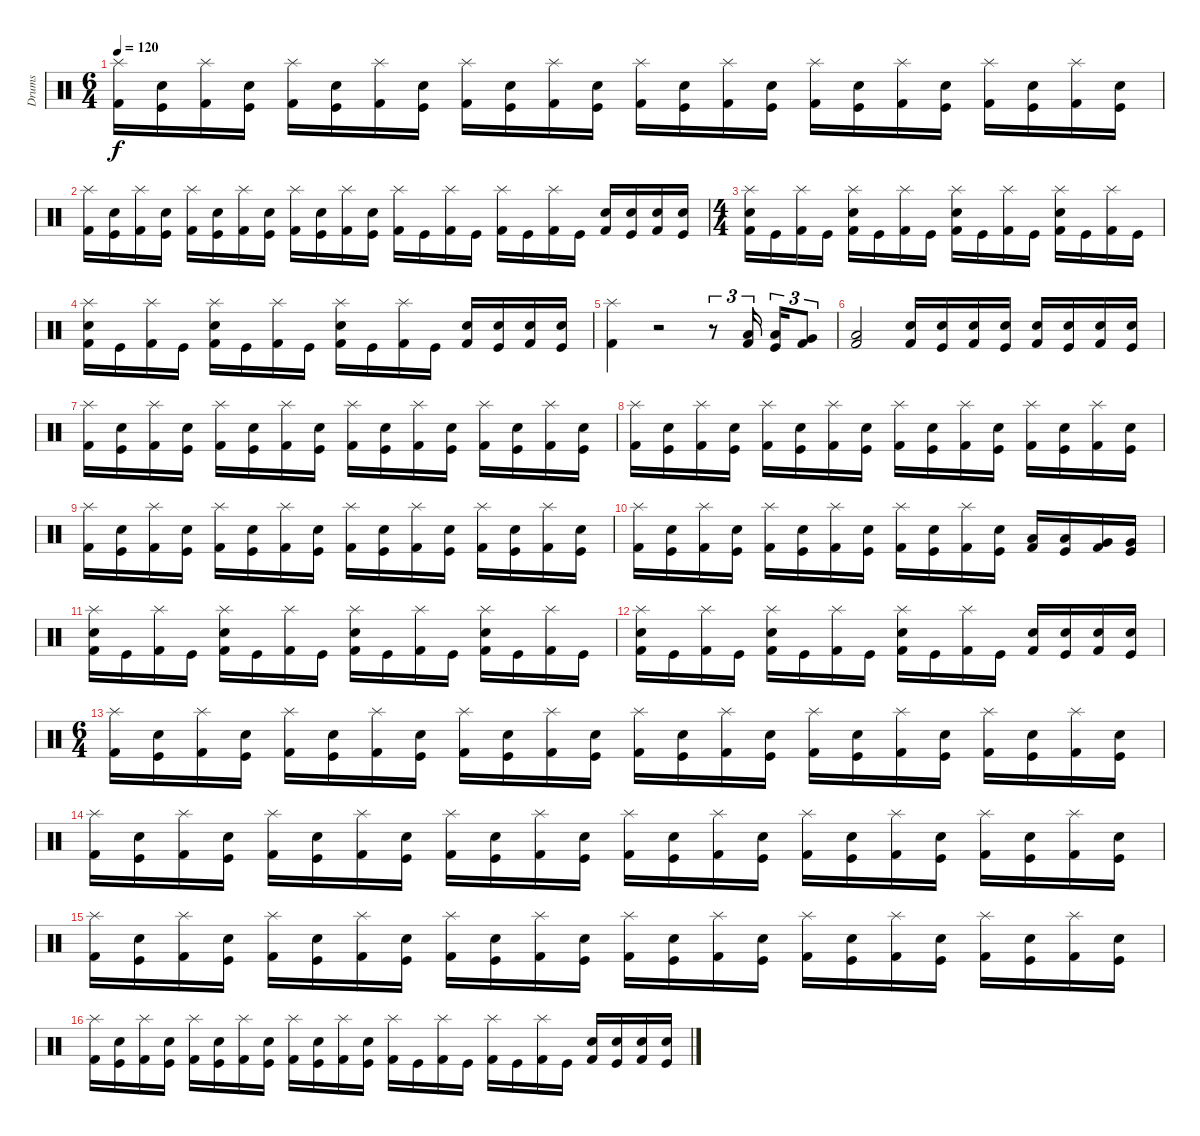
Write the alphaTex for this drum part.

\track ("Drums" "Drums") {instrument percussion}
\staff {score}
\articulation defaults
\ts (6 4)
\tempo 120
\clef neutral
\ks c
("Splash (hit)" "Kick (hit) 2").16{dy f} ("Snare (hit) 2" "Kick (hit)").16 ("Splash (hit)" "Kick (hit) 2").16 ("Snare (hit) 2" "Kick (hit)").16 ("Splash (hit)" "Kick (hit) 2").16 ("Snare (hit) 2" "Kick (hit)").16 ("Splash (hit)" "Kick (hit) 2").16 ("Snare (hit) 2" "Kick (hit)").16 ("Splash (hit)" "Kick (hit) 2").16 ("Snare (hit) 2" "Kick (hit)").16 ("Splash (hit)" "Kick (hit) 2").16 ("Snare (hit) 2" "Kick (hit)").16 ("Splash (hit)" "Kick (hit) 2").16 ("Snare (hit) 2" "Kick (hit)").16 ("Splash (hit)" "Kick (hit) 2").16 ("Snare (hit) 2" "Kick (hit)").16 ("Splash (hit)" "Kick (hit) 2").16 ("Snare (hit) 2" "Kick (hit)").16 ("Splash (hit)" "Kick (hit) 2").16 ("Snare (hit) 2" "Kick (hit)").16 ("Splash (hit)" "Kick (hit) 2").16 ("Snare (hit) 2" "Kick (hit)").16 ("Splash (hit)" "Kick (hit) 2").16 ("Snare (hit) 2" "Kick (hit)").16 |
("Splash (hit)" "Kick (hit) 2").16 ("Snare (hit) 2" "Kick (hit)").16 ("Splash (hit)" "Kick (hit) 2").16 ("Snare (hit) 2" "Kick (hit)").16 ("Splash (hit)" "Kick (hit) 2").16 ("Snare (hit) 2" "Kick (hit)").16 ("Splash (hit)" "Kick (hit) 2").16 ("Snare (hit) 2" "Kick (hit)").16 ("Splash (hit)" "Kick (hit) 2").16 ("Snare (hit) 2" "Kick (hit)").16 ("Splash (hit)" "Kick (hit) 2").16 ("Snare (hit) 2" "Kick (hit)").16 ("Splash (hit)" "Kick (hit) 2").16 "Kick (hit)".16 ("Splash (hit)" "Kick (hit) 2").16 "Kick (hit)".16 ("Splash (hit)" "Kick (hit) 2").16 "Kick (hit)".16 ("Splash (hit)" "Kick (hit) 2").16 "Kick (hit)".16 ("Snare (hit) 2" "Kick (hit) 2").16 ("Snare (hit) 2" "Kick (hit)").16 ("Snare (hit) 2" "Kick (hit) 2").16 ("Snare (hit) 2" "Kick (hit)").16 |
\ts (4 4)
("Splash (hit)" "Snare (hit) 2" "Kick (hit) 2").16 "Kick (hit)".16 ("Splash (hit)" "Kick (hit) 2").16 "Kick (hit)".16 ("Splash (hit)" "Snare (hit) 2" "Kick (hit) 2").16 "Kick (hit)".16 ("Splash (hit)" "Kick (hit) 2").16 "Kick (hit)".16 ("Splash (hit)" "Snare (hit) 2" "Kick (hit) 2").16 "Kick (hit)".16 ("Splash (hit)" "Kick (hit) 2").16 "Kick (hit)".16 ("Splash (hit)" "Snare (hit) 2" "Kick (hit) 2").16 "Kick (hit)".16 ("Splash (hit)" "Kick (hit) 2").16 "Kick (hit)".16 |
("Splash (hit)" "Snare (hit) 2" "Kick (hit) 2").16 "Kick (hit)".16 ("Splash (hit)" "Kick (hit) 2").16 "Kick (hit)".16 ("Splash (hit)" "Snare (hit) 2" "Kick (hit) 2").16 "Kick (hit)".16 ("Splash (hit)" "Kick (hit) 2").16 "Kick (hit)".16 ("Splash (hit)" "Snare (hit) 2" "Kick (hit) 2").16 "Kick (hit)".16 ("Splash (hit)" "Kick (hit) 2").16 "Kick (hit)".16 ("Snare (hit) 2" "Kick (hit) 2").16 ("Snare (hit) 2" "Kick (hit)").16 ("Snare (hit) 2" "Kick (hit) 2").16 ("Snare (hit) 2" "Kick (hit)").16 |
("Splash (hit)" "Kick (hit) 2").4 r.2 r.8{tu (3 2)} ("Low Tom (hit)" "Kick (hit) 2").16{tu (3 2)} ("Low Tom (hit)" "Kick (hit)").16{tu (3 2)} ("Very Low Tom (hit)" "Kick (hit) 2").8{tu (3 2)} |
("Low Tom (hit)" "Kick (hit) 2").2 ("Snare (hit) 2" "Kick (hit) 2").16 ("Snare (hit) 2" "Kick (hit)").16 ("Snare (hit) 2" "Kick (hit) 2").16 ("Snare (hit) 2" "Kick (hit)").16 ("Snare (hit) 2" "Kick (hit) 2").16 ("Snare (hit) 2" "Kick (hit)").16 ("Snare (hit) 2" "Kick (hit) 2").16 ("Snare (hit) 2" "Kick (hit)").16 |
("Splash (hit)" "Kick (hit) 2").16 ("Snare (hit) 2" "Kick (hit)").16 ("Splash (hit)" "Kick (hit) 2").16 ("Snare (hit) 2" "Kick (hit)").16 ("Splash (hit)" "Kick (hit) 2").16 ("Snare (hit) 2" "Kick (hit)").16 ("Splash (hit)" "Kick (hit) 2").16 ("Snare (hit) 2" "Kick (hit)").16 ("Splash (hit)" "Kick (hit) 2").16 ("Snare (hit) 2" "Kick (hit)").16 ("Splash (hit)" "Kick (hit) 2").16 ("Snare (hit) 2" "Kick (hit)").16 ("Splash (hit)" "Kick (hit) 2").16 ("Snare (hit) 2" "Kick (hit)").16 ("Splash (hit)" "Kick (hit) 2").16 ("Snare (hit) 2" "Kick (hit)").16 |
("Splash (hit)" "Kick (hit) 2").16 ("Snare (hit) 2" "Kick (hit)").16 ("Splash (hit)" "Kick (hit) 2").16 ("Snare (hit) 2" "Kick (hit)").16 ("Splash (hit)" "Kick (hit) 2").16 ("Snare (hit) 2" "Kick (hit)").16 ("Splash (hit)" "Kick (hit) 2").16 ("Snare (hit) 2" "Kick (hit)").16 ("Splash (hit)" "Kick (hit) 2").16 ("Snare (hit) 2" "Kick (hit)").16 ("Splash (hit)" "Kick (hit) 2").16 ("Snare (hit) 2" "Kick (hit)").16 ("Splash (hit)" "Kick (hit) 2").16 ("Snare (hit) 2" "Kick (hit)").16 ("Splash (hit)" "Kick (hit) 2").16 ("Snare (hit) 2" "Kick (hit)").16 |
("Splash (hit)" "Kick (hit) 2").16 ("Snare (hit) 2" "Kick (hit)").16 ("Splash (hit)" "Kick (hit) 2").16 ("Snare (hit) 2" "Kick (hit)").16 ("Splash (hit)" "Kick (hit) 2").16 ("Snare (hit) 2" "Kick (hit)").16 ("Splash (hit)" "Kick (hit) 2").16 ("Snare (hit) 2" "Kick (hit)").16 ("Splash (hit)" "Kick (hit) 2").16 ("Snare (hit) 2" "Kick (hit)").16 ("Splash (hit)" "Kick (hit) 2").16 ("Snare (hit) 2" "Kick (hit)").16 ("Splash (hit)" "Kick (hit) 2").16 ("Snare (hit) 2" "Kick (hit)").16 ("Splash (hit)" "Kick (hit) 2").16 ("Snare (hit) 2" "Kick (hit)").16 |
("Splash (hit)" "Kick (hit) 2").16 ("Snare (hit) 2" "Kick (hit)").16 ("Splash (hit)" "Kick (hit) 2").16 ("Snare (hit) 2" "Kick (hit)").16 ("Splash (hit)" "Kick (hit) 2").16 ("Snare (hit) 2" "Kick (hit)").16 ("Splash (hit)" "Kick (hit) 2").16 ("Snare (hit) 2" "Kick (hit)").16 ("Splash (hit)" "Kick (hit) 2").16 ("Snare (hit) 2" "Kick (hit)").16 ("Splash (hit)" "Kick (hit) 2").16 ("Snare (hit) 2" "Kick (hit)").16 ("Low Tom (hit)" "Kick (hit) 2").16 ("Low Tom (hit)" "Kick (hit)").16 ("Very Low Tom (hit)" "Kick (hit) 2").16 ("Very Low Tom (hit)" "Kick (hit)").16 |
("Splash (hit)" "Snare (hit) 2" "Kick (hit) 2").16 "Kick (hit)".16 ("Splash (hit)" "Kick (hit) 2").16 "Kick (hit)".16 ("Splash (hit)" "Snare (hit) 2" "Kick (hit) 2").16 "Kick (hit)".16 ("Splash (hit)" "Kick (hit) 2").16 "Kick (hit)".16 ("Splash (hit)" "Snare (hit) 2" "Kick (hit) 2").16 "Kick (hit)".16 ("Splash (hit)" "Kick (hit) 2").16 "Kick (hit)".16 ("Splash (hit)" "Snare (hit) 2" "Kick (hit) 2").16 "Kick (hit)".16 ("Splash (hit)" "Kick (hit) 2").16 "Kick (hit)".16 |
("Splash (hit)" "Snare (hit) 2" "Kick (hit) 2").16 "Kick (hit)".16 ("Splash (hit)" "Kick (hit) 2").16 "Kick (hit)".16 ("Splash (hit)" "Snare (hit) 2" "Kick (hit) 2").16 "Kick (hit)".16 ("Splash (hit)" "Kick (hit) 2").16 "Kick (hit)".16 ("Splash (hit)" "Snare (hit) 2" "Kick (hit) 2").16 "Kick (hit)".16 ("Splash (hit)" "Kick (hit) 2").16 "Kick (hit)".16 ("Snare (hit) 2" "Kick (hit) 2").16 ("Snare (hit) 2" "Kick (hit)").16 ("Snare (hit) 2" "Kick (hit) 2").16 ("Snare (hit) 2" "Kick (hit)").16 |
\ts (6 4)
("Splash (hit)" "Kick (hit) 2").16 ("Snare (hit) 2" "Kick (hit)").16 ("Splash (hit)" "Kick (hit) 2").16 ("Snare (hit) 2" "Kick (hit)").16 ("Splash (hit)" "Kick (hit) 2").16 ("Snare (hit) 2" "Kick (hit)").16 ("Splash (hit)" "Kick (hit) 2").16 ("Snare (hit) 2" "Kick (hit)").16 ("Splash (hit)" "Kick (hit) 2").16 ("Snare (hit) 2" "Kick (hit)").16 ("Splash (hit)" "Kick (hit) 2").16 ("Snare (hit) 2" "Kick (hit)").16 ("Splash (hit)" "Kick (hit) 2").16 ("Snare (hit) 2" "Kick (hit)").16 ("Splash (hit)" "Kick (hit) 2").16 ("Snare (hit) 2" "Kick (hit)").16 ("Splash (hit)" "Kick (hit) 2").16 ("Snare (hit) 2" "Kick (hit)").16 ("Splash (hit)" "Kick (hit) 2").16 ("Snare (hit) 2" "Kick (hit)").16 ("Splash (hit)" "Kick (hit) 2").16 ("Snare (hit) 2" "Kick (hit)").16 ("Splash (hit)" "Kick (hit) 2").16 ("Snare (hit) 2" "Kick (hit)").16 |
("Splash (hit)" "Kick (hit) 2").16 ("Snare (hit) 2" "Kick (hit)").16 ("Splash (hit)" "Kick (hit) 2").16 ("Snare (hit) 2" "Kick (hit)").16 ("Splash (hit)" "Kick (hit) 2").16 ("Snare (hit) 2" "Kick (hit)").16 ("Splash (hit)" "Kick (hit) 2").16 ("Snare (hit) 2" "Kick (hit)").16 ("Splash (hit)" "Kick (hit) 2").16 ("Snare (hit) 2" "Kick (hit)").16 ("Splash (hit)" "Kick (hit) 2").16 ("Snare (hit) 2" "Kick (hit)").16 ("Splash (hit)" "Kick (hit) 2").16 ("Snare (hit) 2" "Kick (hit)").16 ("Splash (hit)" "Kick (hit) 2").16 ("Snare (hit) 2" "Kick (hit)").16 ("Splash (hit)" "Kick (hit) 2").16 ("Snare (hit) 2" "Kick (hit)").16 ("Splash (hit)" "Kick (hit) 2").16 ("Snare (hit) 2" "Kick (hit)").16 ("Splash (hit)" "Kick (hit) 2").16 ("Snare (hit) 2" "Kick (hit)").16 ("Splash (hit)" "Kick (hit) 2").16 ("Snare (hit) 2" "Kick (hit)").16 |
("Splash (hit)" "Kick (hit) 2").16 ("Snare (hit) 2" "Kick (hit)").16 ("Splash (hit)" "Kick (hit) 2").16 ("Snare (hit) 2" "Kick (hit)").16 ("Splash (hit)" "Kick (hit) 2").16 ("Snare (hit) 2" "Kick (hit)").16 ("Splash (hit)" "Kick (hit) 2").16 ("Snare (hit) 2" "Kick (hit)").16 ("Splash (hit)" "Kick (hit) 2").16 ("Snare (hit) 2" "Kick (hit)").16 ("Splash (hit)" "Kick (hit) 2").16 ("Snare (hit) 2" "Kick (hit)").16 ("Splash (hit)" "Kick (hit) 2").16 ("Snare (hit) 2" "Kick (hit)").16 ("Splash (hit)" "Kick (hit) 2").16 ("Snare (hit) 2" "Kick (hit)").16 ("Splash (hit)" "Kick (hit) 2").16 ("Snare (hit) 2" "Kick (hit)").16 ("Splash (hit)" "Kick (hit) 2").16 ("Snare (hit) 2" "Kick (hit)").16 ("Splash (hit)" "Kick (hit) 2").16 ("Snare (hit) 2" "Kick (hit)").16 ("Splash (hit)" "Kick (hit) 2").16 ("Snare (hit) 2" "Kick (hit)").16 |
("Splash (hit)" "Kick (hit) 2").16 ("Snare (hit) 2" "Kick (hit)").16 ("Splash (hit)" "Kick (hit) 2").16 ("Snare (hit) 2" "Kick (hit)").16 ("Splash (hit)" "Kick (hit) 2").16 ("Snare (hit) 2" "Kick (hit)").16 ("Splash (hit)" "Kick (hit) 2").16 ("Snare (hit) 2" "Kick (hit)").16 ("Splash (hit)" "Kick (hit) 2").16 ("Snare (hit) 2" "Kick (hit)").16 ("Splash (hit)" "Kick (hit) 2").16 ("Snare (hit) 2" "Kick (hit)").16 ("Splash (hit)" "Kick (hit) 2").16 "Kick (hit)".16 ("Splash (hit)" "Kick (hit) 2").16 "Kick (hit)".16 ("Splash (hit)" "Kick (hit) 2").16 "Kick (hit)".16 ("Splash (hit)" "Kick (hit) 2").16 "Kick (hit)".16 ("Snare (hit) 2" "Kick (hit) 2").16 ("Snare (hit) 2" "Kick (hit)").16 ("Snare (hit) 2" "Kick (hit) 2").16 ("Snare (hit) 2" "Kick (hit)").16
